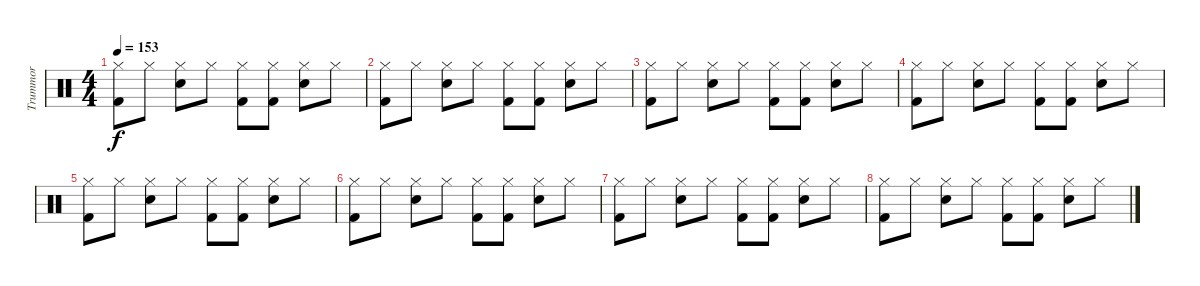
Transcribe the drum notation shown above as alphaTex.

\track ("Trummor" "Trummor") {instrument percussion}
\staff {score}
\articulation defaults
\ts (4 4)
\tempo 153
\clef neutral
\ks c
("Hi-Hat (closed)" "Kick (hit) 2").8{dy f} "Hi-Hat (closed)".8 ("Hi-Hat (closed)" "Snare (hit) 2").8 "Hi-Hat (closed)".8 ("Hi-Hat (closed)" "Kick (hit) 2").8 ("Hi-Hat (closed)" "Kick (hit) 2").8 ("Hi-Hat (closed)" "Snare (hit) 2").8 "Hi-Hat (closed)".8 |
("Hi-Hat (closed)" "Kick (hit) 2").8 "Hi-Hat (closed)".8 ("Hi-Hat (closed)" "Snare (hit) 2").8 "Hi-Hat (closed)".8 ("Hi-Hat (closed)" "Kick (hit) 2").8 ("Hi-Hat (closed)" "Kick (hit) 2").8 ("Hi-Hat (closed)" "Snare (hit) 2").8 "Hi-Hat (closed)".8 |
("Hi-Hat (closed)" "Kick (hit) 2").8 "Hi-Hat (closed)".8 ("Hi-Hat (closed)" "Snare (hit) 2").8 "Hi-Hat (closed)".8 ("Hi-Hat (closed)" "Kick (hit) 2").8 ("Hi-Hat (closed)" "Kick (hit) 2").8 ("Hi-Hat (closed)" "Snare (hit) 2").8 "Hi-Hat (closed)".8 |
("Hi-Hat (closed)" "Kick (hit) 2").8 "Hi-Hat (closed)".8 ("Hi-Hat (closed)" "Snare (hit) 2").8 "Hi-Hat (closed)".8 ("Hi-Hat (closed)" "Kick (hit) 2").8 ("Hi-Hat (closed)" "Kick (hit) 2").8 ("Hi-Hat (closed)" "Snare (hit) 2").8 "Hi-Hat (closed)".8 |
("Hi-Hat (closed)" "Kick (hit) 2").8 "Hi-Hat (closed)".8 ("Hi-Hat (closed)" "Snare (hit) 2").8 "Hi-Hat (closed)".8 ("Hi-Hat (closed)" "Kick (hit) 2").8 ("Hi-Hat (closed)" "Kick (hit) 2").8 ("Hi-Hat (closed)" "Snare (hit) 2").8 "Hi-Hat (closed)".8 |
("Hi-Hat (closed)" "Kick (hit) 2").8 "Hi-Hat (closed)".8 ("Hi-Hat (closed)" "Snare (hit) 2").8 "Hi-Hat (closed)".8 ("Hi-Hat (closed)" "Kick (hit) 2").8 ("Hi-Hat (closed)" "Kick (hit) 2").8 ("Hi-Hat (closed)" "Snare (hit) 2").8 "Hi-Hat (closed)".8 |
("Hi-Hat (closed)" "Kick (hit) 2").8 "Hi-Hat (closed)".8 ("Hi-Hat (closed)" "Snare (hit) 2").8 "Hi-Hat (closed)".8 ("Hi-Hat (closed)" "Kick (hit) 2").8 ("Hi-Hat (closed)" "Kick (hit) 2").8 ("Hi-Hat (closed)" "Snare (hit) 2").8 "Hi-Hat (closed)".8 |
("Hi-Hat (closed)" "Kick (hit) 2").8 "Hi-Hat (closed)".8 ("Hi-Hat (closed)" "Snare (hit) 2").8 "Hi-Hat (closed)".8 ("Hi-Hat (closed)" "Kick (hit) 2").8 ("Hi-Hat (closed)" "Kick (hit) 2").8 ("Hi-Hat (closed)" "Snare (hit) 2").8 "Hi-Hat (closed)".8
